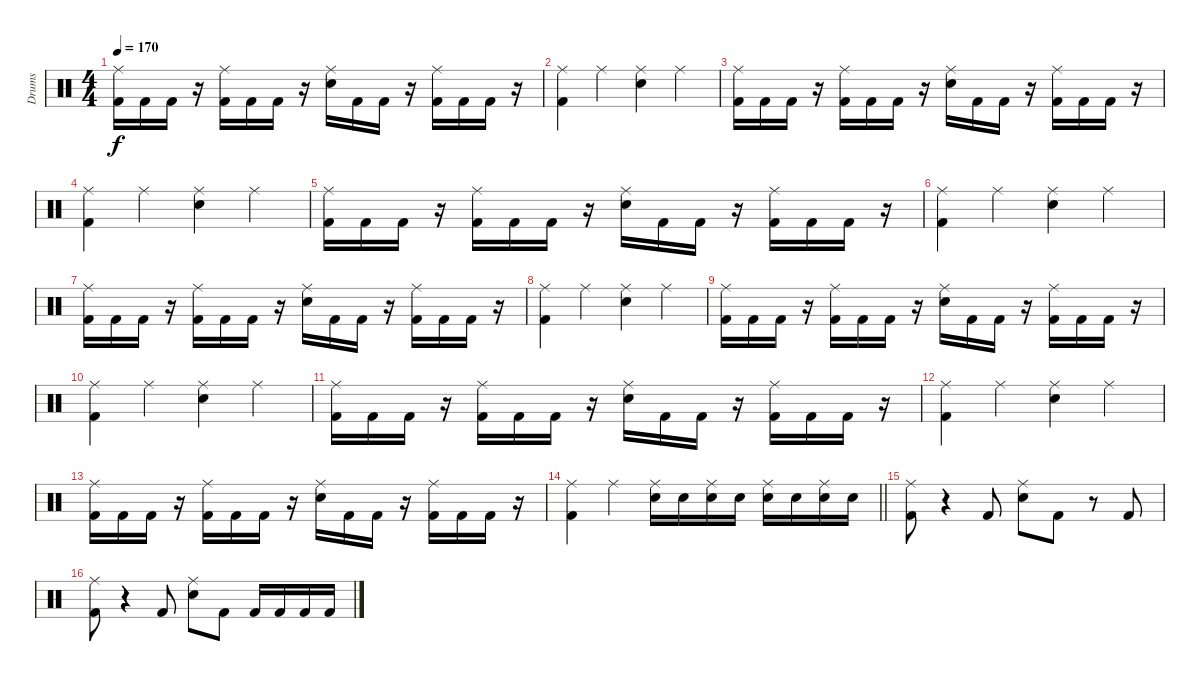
\track ("Drums" "Drums") {instrument percussion}
\staff {score}
\articulation defaults
\ts (4 4)
\tempo 170
\clef neutral
\ks c
("Ride (middle)" "Kick (hit) 2").16{dy f} "Kick (hit) 2".16 "Kick (hit) 2".16 r.16 ("Ride (middle)" "Kick (hit) 2").16 "Kick (hit) 2".16 "Kick (hit) 2".16 r.16 ("Ride (middle)" "Electric Snare (hit)").16 "Kick (hit) 2".16 "Kick (hit) 2".16 r.16 ("Ride (middle)" "Kick (hit) 2").16 "Kick (hit) 2".16 "Kick (hit) 2".16 r.16 |
("Ride (middle)" "Kick (hit) 2").4 "Ride (middle)".4 ("Ride (middle)" "Electric Snare (hit)").4 "Ride (middle)".4 |
("Ride (middle)" "Kick (hit) 2").16 "Kick (hit) 2".16 "Kick (hit) 2".16 r.16 ("Ride (middle)" "Kick (hit) 2").16 "Kick (hit) 2".16 "Kick (hit) 2".16 r.16 ("Ride (middle)" "Electric Snare (hit)").16 "Kick (hit) 2".16 "Kick (hit) 2".16 r.16 ("Ride (middle)" "Kick (hit) 2").16 "Kick (hit) 2".16 "Kick (hit) 2".16 r.16 |
("Ride (middle)" "Kick (hit) 2").4 "Ride (middle)".4 ("Ride (middle)" "Electric Snare (hit)").4 "Ride (middle)".4 |
("Ride (middle)" "Kick (hit) 2").16 "Kick (hit) 2".16 "Kick (hit) 2".16 r.16 ("Ride (middle)" "Kick (hit) 2").16 "Kick (hit) 2".16 "Kick (hit) 2".16 r.16 ("Ride (middle)" "Electric Snare (hit)").16 "Kick (hit) 2".16 "Kick (hit) 2".16 r.16 ("Ride (middle)" "Kick (hit) 2").16 "Kick (hit) 2".16 "Kick (hit) 2".16 r.16 |
("Ride (middle)" "Kick (hit) 2").4 "Ride (middle)".4 ("Ride (middle)" "Electric Snare (hit)").4 "Ride (middle)".4 |
("Ride (middle)" "Kick (hit) 2").16 "Kick (hit) 2".16 "Kick (hit) 2".16 r.16 ("Ride (middle)" "Kick (hit) 2").16 "Kick (hit) 2".16 "Kick (hit) 2".16 r.16 ("Ride (middle)" "Electric Snare (hit)").16 "Kick (hit) 2".16 "Kick (hit) 2".16 r.16 ("Ride (middle)" "Kick (hit) 2").16 "Kick (hit) 2".16 "Kick (hit) 2".16 r.16 |
("Ride (middle)" "Kick (hit) 2").4 "Ride (middle)".4 ("Ride (middle)" "Electric Snare (hit)").4 "Ride (middle)".4 |
("Ride (middle)" "Kick (hit) 2").16 "Kick (hit) 2".16 "Kick (hit) 2".16 r.16 ("Ride (middle)" "Kick (hit) 2").16 "Kick (hit) 2".16 "Kick (hit) 2".16 r.16 ("Ride (middle)" "Electric Snare (hit)").16 "Kick (hit) 2".16 "Kick (hit) 2".16 r.16 ("Ride (middle)" "Kick (hit) 2").16 "Kick (hit) 2".16 "Kick (hit) 2".16 r.16 |
("Ride (middle)" "Kick (hit) 2").4 "Ride (middle)".4 ("Ride (middle)" "Electric Snare (hit)").4 "Ride (middle)".4 |
("Ride (middle)" "Kick (hit) 2").16 "Kick (hit) 2".16 "Kick (hit) 2".16 r.16 ("Ride (middle)" "Kick (hit) 2").16 "Kick (hit) 2".16 "Kick (hit) 2".16 r.16 ("Ride (middle)" "Electric Snare (hit)").16 "Kick (hit) 2".16 "Kick (hit) 2".16 r.16 ("Ride (middle)" "Kick (hit) 2").16 "Kick (hit) 2".16 "Kick (hit) 2".16 r.16 |
("Ride (middle)" "Kick (hit) 2").4 "Ride (middle)".4 ("Ride (middle)" "Electric Snare (hit)").4 "Ride (middle)".4 |
("Ride (middle)" "Kick (hit) 2").16 "Kick (hit) 2".16 "Kick (hit) 2".16 r.16 ("Ride (middle)" "Kick (hit) 2").16 "Kick (hit) 2".16 "Kick (hit) 2".16 r.16 ("Ride (middle)" "Electric Snare (hit)").16 "Kick (hit) 2".16 "Kick (hit) 2".16 r.16 ("Ride (middle)" "Kick (hit) 2").16 "Kick (hit) 2".16 "Kick (hit) 2".16 r.16 |
\barLineRight lightlight
("Ride (middle)" "Kick (hit) 2").4 "Ride (middle)".4 ("Ride (middle)" "Electric Snare (hit)").16 "Electric Snare (hit)".16 ("Ride (middle)" "Electric Snare (hit)").16 "Electric Snare (hit)".16 ("Ride (middle)" "Electric Snare (hit)").16 "Electric Snare (hit)".16 ("Ride (middle)" "Electric Snare (hit)").16 "Electric Snare (hit)".16 |
\section ("" "")
("Ride (middle)" "Kick (hit) 2").8 r.4 "Kick (hit) 2".8 ("Ride (middle)" "Electric Snare (hit)").8 "Kick (hit) 2".8 r.8 "Kick (hit) 2".8 |
("Ride (middle)" "Kick (hit) 2").8 r.4 "Kick (hit) 2".8 ("Ride (middle)" "Electric Snare (hit)").8 "Kick (hit) 2".8 "Kick (hit) 2".16 "Kick (hit) 2".16 "Kick (hit) 2".16 "Kick (hit) 2".16
